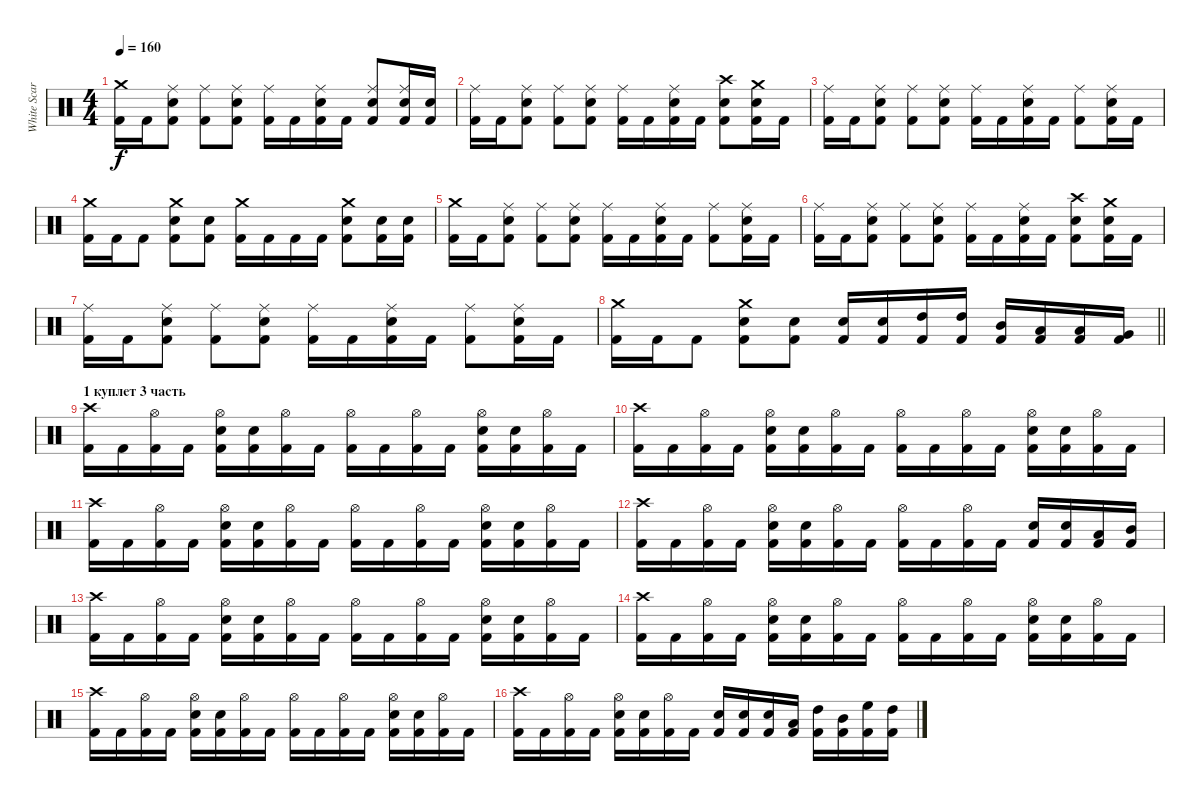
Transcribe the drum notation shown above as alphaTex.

\track ("White Scar" "White Scar") {instrument percussion}
\staff {score}
\articulation defaults
\ts (4 4)
\tempo 160
\clef neutral
\ks c
("Crash medium (hit)" "Kick (hit) 2").16{dy f} "Kick (hit) 2".16 ("Ride (middle)" "Snare (hit) 2" "Kick (hit) 2").8 ("Ride (middle)" "Kick (hit) 2").8 ("Ride (middle)" "Snare (hit) 2" "Kick (hit) 2").8 ("Ride (middle)" "Kick (hit) 2").16 "Kick (hit) 2".16 ("Ride (middle)" "Snare (hit) 2" "Kick (hit) 2").16 "Kick (hit) 2".16 ("Ride (middle)" "Snare (hit) 2" "Kick (hit) 2").8 ("Ride (middle)" "Snare (hit) 2" "Kick (hit) 2").16 ("Snare (hit) 2" "Kick (hit) 2").16 |
("Ride (middle)" "Kick (hit) 2").16 "Kick (hit) 2".16 ("Ride (middle)" "Snare (hit) 2" "Kick (hit) 2").8 ("Ride (middle)" "Kick (hit) 2").8 ("Ride (middle)" "Snare (hit) 2" "Kick (hit) 2").8 ("Ride (middle)" "Kick (hit) 2").16 "Kick (hit) 2".16 ("Ride (middle)" "Snare (hit) 2" "Kick (hit) 2").16 "Kick (hit) 2".16 ("Crash high (hit)" "Snare (hit) 2" "Kick (hit) 2").8 ("Crash medium (hit)" "Snare (hit) 2" "Kick (hit) 2").16 "Kick (hit) 2".16 |
("Ride (middle)" "Kick (hit) 2").16 "Kick (hit) 2".16 ("Ride (middle)" "Snare (hit) 2" "Kick (hit) 2").8 ("Ride (middle)" "Kick (hit) 2").8 ("Ride (middle)" "Snare (hit) 2" "Kick (hit) 2").8 ("Ride (middle)" "Kick (hit) 2").16 "Kick (hit) 2".16 ("Ride (middle)" "Snare (hit) 2" "Kick (hit) 2").16 "Kick (hit) 2".16 ("Ride (middle)" "Kick (hit) 2").8 ("Ride (middle)" "Snare (hit) 2" "Kick (hit) 2").16 "Kick (hit) 2".16 |
("Crash medium (hit)" "Kick (hit) 2").16 "Kick (hit) 2".16 "Kick (hit) 2".8 ("Crash medium (hit)" "Snare (hit) 2" "Kick (hit) 2").8 ("Snare (hit) 2" "Kick (hit) 2").8 ("Crash medium (hit)" "Kick (hit) 2").16 "Kick (hit) 2".16 "Kick (hit) 2".16 "Kick (hit) 2".16 ("Crash medium (hit)" "Snare (hit) 2" "Kick (hit) 2").8 ("Snare (hit) 2" "Kick (hit) 2").16 ("Snare (hit) 2" "Kick (hit) 2").16 |
("Crash medium (hit)" "Kick (hit) 2").16 "Kick (hit) 2".16 ("Ride (middle)" "Snare (hit) 2" "Kick (hit) 2").8 ("Ride (middle)" "Kick (hit) 2").8 ("Ride (middle)" "Snare (hit) 2" "Kick (hit) 2").8 ("Ride (middle)" "Kick (hit) 2").16 "Kick (hit) 2".16 ("Ride (middle)" "Snare (hit) 2" "Kick (hit) 2").16 "Kick (hit) 2".16 ("Ride (middle)" "Kick (hit) 2").8 ("Ride (middle)" "Snare (hit) 2" "Kick (hit) 2").16 "Kick (hit) 2".16 |
("Ride (middle)" "Kick (hit) 2").16 "Kick (hit) 2".16 ("Ride (middle)" "Snare (hit) 2" "Kick (hit) 2").8 ("Ride (middle)" "Kick (hit) 2").8 ("Ride (middle)" "Snare (hit) 2" "Kick (hit) 2").8 ("Ride (middle)" "Kick (hit) 2").16 "Kick (hit) 2".16 ("Ride (middle)" "Snare (hit) 2" "Kick (hit) 2").16 "Kick (hit) 2".16 ("Crash high (hit)" "Snare (hit) 2" "Kick (hit) 2").8 ("Crash medium (hit)" "Snare (hit) 2" "Kick (hit) 2").16 "Kick (hit) 2".16 |
("Ride (middle)" "Kick (hit) 2").16 "Kick (hit) 2".16 ("Ride (middle)" "Snare (hit) 2" "Kick (hit) 2").8 ("Ride (middle)" "Kick (hit) 2").8 ("Ride (middle)" "Snare (hit) 2" "Kick (hit) 2").8 ("Ride (middle)" "Kick (hit) 2").16 "Kick (hit) 2".16 ("Ride (middle)" "Snare (hit) 2" "Kick (hit) 2").16 "Kick (hit) 2".16 ("Ride (middle)" "Kick (hit) 2").8 ("Ride (middle)" "Snare (hit) 2" "Kick (hit) 2").16 "Kick (hit) 2".16 |
\barLineRight lightlight
("Crash medium (hit)" "Kick (hit) 2").16 "Kick (hit) 2".16 "Kick (hit) 2".8 ("Crash medium (hit)" "Snare (hit) 2" "Kick (hit) 2").8 ("Snare (hit) 2" "Kick (hit) 2").8 ("Snare (hit) 2" "Kick (hit) 2").16 ("Snare (hit) 2" "Kick (hit) 2").16 ("High Tom (hit)" "Kick (hit) 2").16 ("High Tom (hit)" "Kick (hit) 2").16 ("Mid Tom (hit)" "Kick (hit) 2").16 ("Low Tom (hit)" "Kick (hit) 2").16 ("Low Tom (hit)" "Kick (hit) 2").16 ("Very Low Tom (hit)" "Kick (hit) 2").16 |
\section ("" "1 куплет 3 часть")
("Crash high (hit)" "Kick (hit) 2").16 "Kick (hit) 2".16 ("Hi-Hat (open)" "Kick (hit) 2").16 "Kick (hit) 2".16 ("Hi-Hat (open)" "Snare (hit) 2" "Kick (hit) 2").16 ("Snare (hit) 2" "Kick (hit) 2").16 ("Hi-Hat (open)" "Kick (hit) 2").16 "Kick (hit) 2".16 ("Hi-Hat (open)" "Kick (hit) 2").16 "Kick (hit) 2".16 ("Hi-Hat (open)" "Kick (hit) 2").16 "Kick (hit) 2".16 ("Hi-Hat (open)" "Snare (hit) 2" "Kick (hit) 2").16 ("Snare (hit) 2" "Kick (hit) 2").16 ("Hi-Hat (open)" "Kick (hit) 2").16 "Kick (hit) 2".16 |
("Crash high (hit)" "Kick (hit) 2").16 "Kick (hit) 2".16 ("Hi-Hat (open)" "Kick (hit) 2").16 "Kick (hit) 2".16 ("Hi-Hat (open)" "Snare (hit) 2" "Kick (hit) 2").16 ("Snare (hit) 2" "Kick (hit) 2").16 ("Hi-Hat (open)" "Kick (hit) 2").16 "Kick (hit) 2".16 ("Hi-Hat (open)" "Kick (hit) 2").16 "Kick (hit) 2".16 ("Hi-Hat (open)" "Kick (hit) 2").16 "Kick (hit) 2".16 ("Hi-Hat (open)" "Snare (hit) 2" "Kick (hit) 2").16 ("Snare (hit) 2" "Kick (hit) 2").16 ("Hi-Hat (open)" "Kick (hit) 2").16 "Kick (hit) 2".16 |
("Crash high (hit)" "Kick (hit) 2").16 "Kick (hit) 2".16 ("Hi-Hat (open)" "Kick (hit) 2").16 "Kick (hit) 2".16 ("Hi-Hat (open)" "Snare (hit) 2" "Kick (hit) 2").16 ("Snare (hit) 2" "Kick (hit) 2").16 ("Hi-Hat (open)" "Kick (hit) 2").16 "Kick (hit) 2".16 ("Hi-Hat (open)" "Kick (hit) 2").16 "Kick (hit) 2".16 ("Hi-Hat (open)" "Kick (hit) 2").16 "Kick (hit) 2".16 ("Hi-Hat (open)" "Snare (hit) 2" "Kick (hit) 2").16 ("Snare (hit) 2" "Kick (hit) 2").16 ("Hi-Hat (open)" "Kick (hit) 2").16 "Kick (hit) 2".16 |
("Crash high (hit)" "Kick (hit) 2").16 "Kick (hit) 2".16 ("Hi-Hat (open)" "Kick (hit) 2").16 "Kick (hit) 2".16 ("Hi-Hat (open)" "Snare (hit) 2" "Kick (hit) 2").16 ("Snare (hit) 2" "Kick (hit) 2").16 ("Hi-Hat (open)" "Kick (hit) 2").16 "Kick (hit) 2".16 ("Hi-Hat (open)" "Kick (hit) 2").16 "Kick (hit) 2".16 ("Hi-Hat (open)" "Kick (hit) 2").16 "Kick (hit) 2".16 ("Snare (hit) 2" "Kick (hit) 2").16 ("Snare (hit) 2" "Kick (hit) 2").16 ("Low Tom (hit)" "Kick (hit) 2").16 ("Mid Tom (hit)" "Kick (hit) 2").16 |
("Crash high (hit)" "Kick (hit) 2").16 "Kick (hit) 2".16 ("Hi-Hat (open)" "Kick (hit) 2").16 "Kick (hit) 2".16 ("Hi-Hat (open)" "Snare (hit) 2" "Kick (hit) 2").16 ("Snare (hit) 2" "Kick (hit) 2").16 ("Hi-Hat (open)" "Kick (hit) 2").16 "Kick (hit) 2".16 ("Hi-Hat (open)" "Kick (hit) 2").16 "Kick (hit) 2".16 ("Hi-Hat (open)" "Kick (hit) 2").16 "Kick (hit) 2".16 ("Hi-Hat (open)" "Snare (hit) 2" "Kick (hit) 2").16 ("Snare (hit) 2" "Kick (hit) 2").16 ("Hi-Hat (open)" "Kick (hit) 2").16 "Kick (hit) 2".16 |
("Crash high (hit)" "Kick (hit) 2").16 "Kick (hit) 2".16 ("Hi-Hat (open)" "Kick (hit) 2").16 "Kick (hit) 2".16 ("Hi-Hat (open)" "Snare (hit) 2" "Kick (hit) 2").16 ("Snare (hit) 2" "Kick (hit) 2").16 ("Hi-Hat (open)" "Kick (hit) 2").16 "Kick (hit) 2".16 ("Hi-Hat (open)" "Kick (hit) 2").16 "Kick (hit) 2".16 ("Hi-Hat (open)" "Kick (hit) 2").16 "Kick (hit) 2".16 ("Hi-Hat (open)" "Snare (hit) 2" "Kick (hit) 2").16 ("Snare (hit) 2" "Kick (hit) 2").16 ("Hi-Hat (open)" "Kick (hit) 2").16 "Kick (hit) 2".16 |
("Crash high (hit)" "Kick (hit) 2").16 "Kick (hit) 2".16 ("Hi-Hat (open)" "Kick (hit) 2").16 "Kick (hit) 2".16 ("Hi-Hat (open)" "Snare (hit) 2" "Kick (hit) 2").16 ("Snare (hit) 2" "Kick (hit) 2").16 ("Hi-Hat (open)" "Kick (hit) 2").16 "Kick (hit) 2".16 ("Hi-Hat (open)" "Kick (hit) 2").16 "Kick (hit) 2".16 ("Hi-Hat (open)" "Kick (hit) 2").16 "Kick (hit) 2".16 ("Hi-Hat (open)" "Snare (hit) 2" "Kick (hit) 2").16 ("Snare (hit) 2" "Kick (hit) 2").16 ("Hi-Hat (open)" "Kick (hit) 2").16 "Kick (hit) 2".16 |
("Crash high (hit)" "Kick (hit) 2").16 "Kick (hit) 2".16 ("Hi-Hat (open)" "Kick (hit) 2").16 "Kick (hit) 2".16 ("Hi-Hat (open)" "Snare (hit) 2" "Kick (hit) 2").16 ("Snare (hit) 2" "Kick (hit) 2").16 ("Hi-Hat (open)" "Kick (hit) 2").16 "Kick (hit) 2".16 ("Snare (hit) 2" "Kick (hit) 2").16 ("Snare (hit) 2" "Kick (hit) 2").16 ("Snare (hit) 2" "Kick (hit) 2").16 ("Low Tom (hit)" "Kick (hit) 2").16 ("High Tom (hit)" "Kick (hit) 2").16 ("Mid Tom (hit)" "Kick (hit) 2").16 ("High Floor Tom (hit)" "Kick (hit) 2").16 ("High Tom (hit)" "Kick (hit) 2").16
